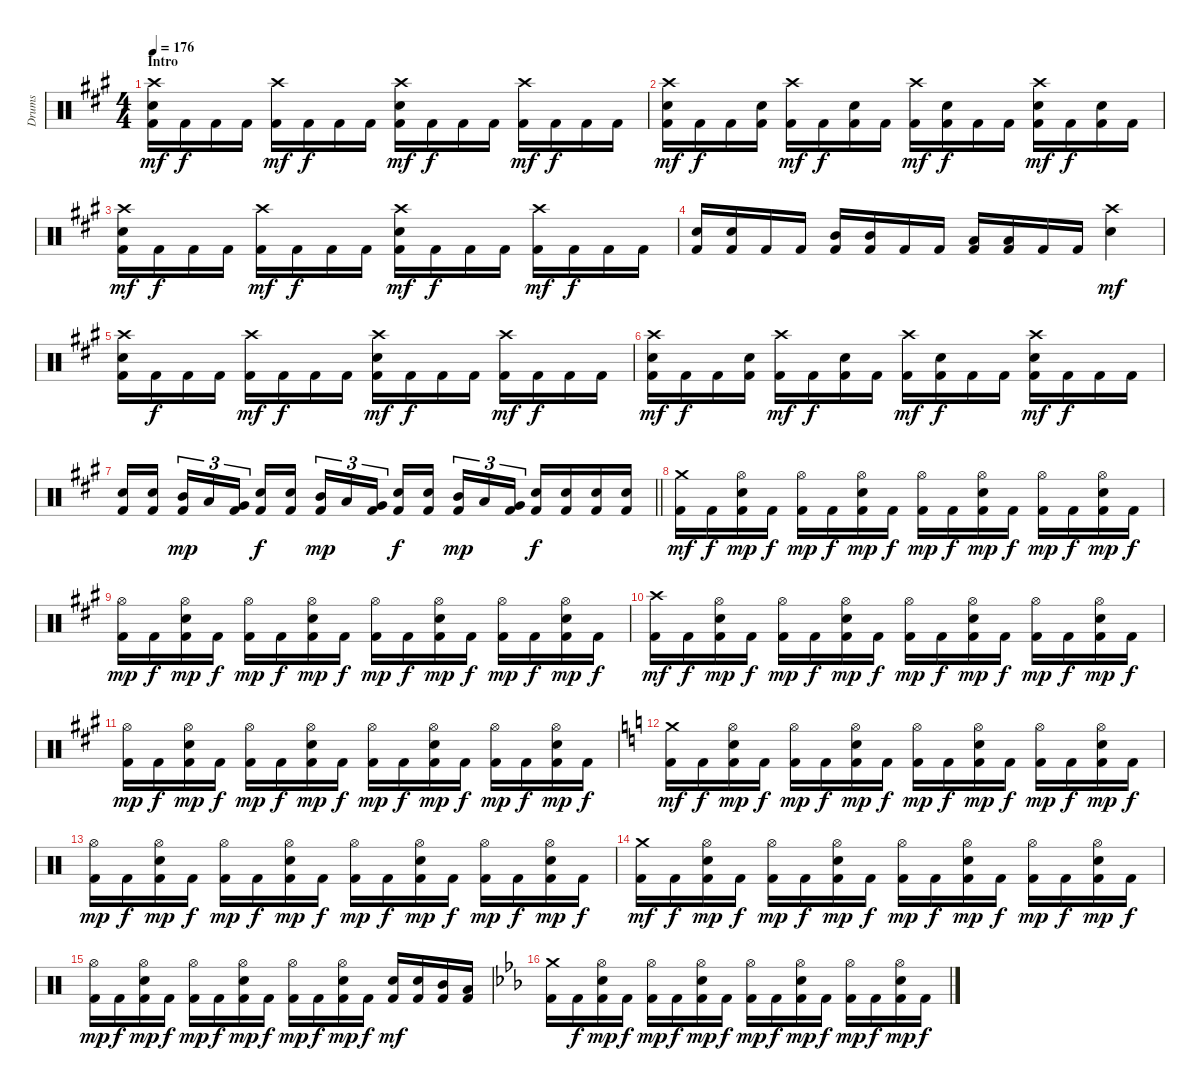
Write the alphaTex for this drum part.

\track ("Drums" "Drums") {instrument percussion}
\staff {score}
\articulation defaults
\ts (4 4)
\section ("" "Intro")
\tempo 176
\clef neutral
\ks f#minor
("Crash high (hit)" "Electric Snare (hit)" "Kick (hit) 2").16{dy mf} "Kick (hit) 2".16{dy f} "Kick (hit) 2".16 "Kick (hit) 2".16 ("Crash high (hit)" "Kick (hit) 2").16{dy mf} "Kick (hit) 2".16{dy f} "Kick (hit) 2".16 "Kick (hit) 2".16 ("Crash high (hit)" "Electric Snare (hit)" "Kick (hit) 2").16{dy mf} "Kick (hit) 2".16{dy f} "Kick (hit) 2".16 "Kick (hit) 2".16 ("Crash high (hit)" "Kick (hit) 2").16{dy mf} "Kick (hit) 2".16{dy f} "Kick (hit) 2".16 "Kick (hit) 2".16 |
("Crash high (hit)" "Electric Snare (hit)" "Kick (hit) 2").16{dy mf} "Kick (hit) 2".16{dy f} "Kick (hit) 2".16 ("Electric Snare (hit)" "Kick (hit) 2").16 ("Crash high (hit)" "Kick (hit) 2").16{dy mf} "Kick (hit) 2".16{dy f} ("Electric Snare (hit)" "Kick (hit) 2").16 "Kick (hit) 2".16 ("Crash high (hit)" "Kick (hit) 2").16{dy mf} ("Electric Snare (hit)" "Kick (hit) 2").16{dy f} "Kick (hit) 2".16 "Kick (hit) 2".16 ("Crash high (hit)" "Electric Snare (hit)" "Kick (hit) 2").16{dy mf} "Kick (hit) 2".16{dy f} ("Electric Snare (hit)" "Kick (hit) 2").16 "Kick (hit) 2".16 |
("Crash high (hit)" "Electric Snare (hit)" "Kick (hit) 2").16{dy mf} "Kick (hit) 2".16{dy f} "Kick (hit) 2".16 "Kick (hit) 2".16 ("Crash high (hit)" "Kick (hit) 2").16{dy mf} "Kick (hit) 2".16{dy f} "Kick (hit) 2".16 "Kick (hit) 2".16 ("Crash high (hit)" "Electric Snare (hit)" "Kick (hit) 2").16{dy mf} "Kick (hit) 2".16{dy f} "Kick (hit) 2".16 "Kick (hit) 2".16 ("Crash high (hit)" "Kick (hit) 2").16{dy mf} "Kick (hit) 2".16{dy f} "Kick (hit) 2".16 "Kick (hit) 2".16 |
("Electric Snare (hit)" "Kick (hit) 2").16 ("Electric Snare (hit)" "Kick (hit) 2").16 "Kick (hit) 2".16 "Kick (hit) 2".16 ("Mid Tom (hit)" "Kick (hit) 2").16 ("Mid Tom (hit)" "Kick (hit) 2").16 "Kick (hit) 2".16 "Kick (hit) 2".16 ("Low Tom (hit)" "Kick (hit) 2").16 ("Low Tom (hit)" "Kick (hit) 2").16 "Kick (hit) 2".16 "Kick (hit) 2".16 ("Crash high (hit)" "Electric Snare (hit)").4{dy mf} |
("Crash high (hit)" "Electric Snare (hit)" "Kick (hit) 2").16 "Kick (hit) 2".16{dy f} "Kick (hit) 2".16 "Kick (hit) 2".16 ("Crash high (hit)" "Kick (hit) 2").16{dy mf} "Kick (hit) 2".16{dy f} "Kick (hit) 2".16 "Kick (hit) 2".16 ("Crash high (hit)" "Electric Snare (hit)" "Kick (hit) 2").16{dy mf} "Kick (hit) 2".16{dy f} "Kick (hit) 2".16 "Kick (hit) 2".16 ("Crash high (hit)" "Kick (hit) 2").16{dy mf} "Kick (hit) 2".16{dy f} "Kick (hit) 2".16 "Kick (hit) 2".16 |
("Crash high (hit)" "Electric Snare (hit)" "Kick (hit) 2").16{dy mf} "Kick (hit) 2".16{dy f} "Kick (hit) 2".16 ("Electric Snare (hit)" "Kick (hit) 2").16 ("Crash high (hit)" "Kick (hit) 2").16{dy mf} "Kick (hit) 2".16{dy f} ("Electric Snare (hit)" "Kick (hit) 2").16 "Kick (hit) 2".16 ("Crash high (hit)" "Kick (hit) 2").16{dy mf} ("Electric Snare (hit)" "Kick (hit) 2").16{dy f} "Kick (hit) 2".16 "Kick (hit) 2".16 ("Crash high (hit)" "Electric Snare (hit)" "Kick (hit) 2").16{dy mf} "Kick (hit) 2".16{dy f} "Kick (hit) 2".16 "Kick (hit) 2".16 |
\barLineRight lightlight
("Electric Snare (hit)" "Kick (hit) 2").16 ("Electric Snare (hit)" "Kick (hit) 2").16{beam splitsecondary} ("Mid Tom (hit)" "Kick (hit) 2").16{tu (3 2) dy mp} "Low Tom (hit)".16{tu (3 2)} ("Very Low Tom (hit)" "Kick (hit) 2").16{tu (3 2)} ("Electric Snare (hit)" "Kick (hit) 2").16{dy f} ("Electric Snare (hit)" "Kick (hit) 2").16{beam splitsecondary} ("Mid Tom (hit)" "Kick (hit) 2").16{tu (3 2) dy mp} "Low Tom (hit)".16{tu (3 2)} ("Very Low Tom (hit)" "Kick (hit) 2").16{tu (3 2)} ("Electric Snare (hit)" "Kick (hit) 2").16{dy f} ("Electric Snare (hit)" "Kick (hit) 2").16{beam splitsecondary} ("Mid Tom (hit)" "Kick (hit) 2").16{tu (3 2) dy mp} "Low Tom (hit)".16{tu (3 2)} ("Very Low Tom (hit)" "Kick (hit) 2").16{tu (3 2)} ("Electric Snare (hit)" "Kick (hit) 2").16{dy f} ("Electric Snare (hit)" "Kick (hit) 2").16 ("Electric Snare (hit)" "Kick (hit) 2").16 ("Electric Snare (hit)" "Kick (hit) 2").16 |
\section ("" "")
("Crash medium (hit)" "Kick (hit) 2").16{dy mf} "Kick (hit) 2".16{dy f} ("Hi-Hat (open)" "Electric Snare (hit)" "Kick (hit) 2").16{dy mp} "Kick (hit) 2".16{dy f} ("Hi-Hat (open)" "Kick (hit) 2").16{dy mp} "Kick (hit) 2".16{dy f} ("Hi-Hat (open)" "Electric Snare (hit)" "Kick (hit) 2").16{dy mp} "Kick (hit) 2".16{dy f} ("Hi-Hat (open)" "Kick (hit) 2").16{dy mp} "Kick (hit) 2".16{dy f} ("Hi-Hat (open)" "Electric Snare (hit)" "Kick (hit) 2").16{dy mp} "Kick (hit) 2".16{dy f} ("Hi-Hat (open)" "Kick (hit) 2").16{dy mp} "Kick (hit) 2".16{dy f} ("Hi-Hat (open)" "Electric Snare (hit)" "Kick (hit) 2").16{dy mp} "Kick (hit) 2".16{dy f} |
("Hi-Hat (open)" "Kick (hit) 2").16{dy mp} "Kick (hit) 2".16{dy f} ("Hi-Hat (open)" "Electric Snare (hit)" "Kick (hit) 2").16{dy mp} "Kick (hit) 2".16{dy f} ("Hi-Hat (open)" "Kick (hit) 2").16{dy mp} "Kick (hit) 2".16{dy f} ("Hi-Hat (open)" "Electric Snare (hit)" "Kick (hit) 2").16{dy mp} "Kick (hit) 2".16{dy f} ("Hi-Hat (open)" "Kick (hit) 2").16{dy mp} "Kick (hit) 2".16{dy f} ("Hi-Hat (open)" "Electric Snare (hit)" "Kick (hit) 2").16{dy mp} "Kick (hit) 2".16{dy f} ("Hi-Hat (open)" "Kick (hit) 2").16{dy mp} "Kick (hit) 2".16{dy f} ("Hi-Hat (open)" "Electric Snare (hit)" "Kick (hit) 2").16{dy mp} "Kick (hit) 2".16{dy f} |
("Crash high (hit)" "Kick (hit) 2").16{dy mf} "Kick (hit) 2".16{dy f} ("Hi-Hat (open)" "Electric Snare (hit)" "Kick (hit) 2").16{dy mp} "Kick (hit) 2".16{dy f} ("Hi-Hat (open)" "Kick (hit) 2").16{dy mp} "Kick (hit) 2".16{dy f} ("Hi-Hat (open)" "Electric Snare (hit)" "Kick (hit) 2").16{dy mp} "Kick (hit) 2".16{dy f} ("Hi-Hat (open)" "Kick (hit) 2").16{dy mp} "Kick (hit) 2".16{dy f} ("Hi-Hat (open)" "Electric Snare (hit)" "Kick (hit) 2").16{dy mp} "Kick (hit) 2".16{dy f} ("Hi-Hat (open)" "Kick (hit) 2").16{dy mp} "Kick (hit) 2".16{dy f} ("Hi-Hat (open)" "Electric Snare (hit)" "Kick (hit) 2").16{dy mp} "Kick (hit) 2".16{dy f} |
("Hi-Hat (open)" "Kick (hit) 2").16{dy mp} "Kick (hit) 2".16{dy f} ("Hi-Hat (open)" "Electric Snare (hit)" "Kick (hit) 2").16{dy mp} "Kick (hit) 2".16{dy f} ("Hi-Hat (open)" "Kick (hit) 2").16{dy mp} "Kick (hit) 2".16{dy f} ("Hi-Hat (open)" "Electric Snare (hit)" "Kick (hit) 2").16{dy mp} "Kick (hit) 2".16{dy f} ("Hi-Hat (open)" "Kick (hit) 2").16{dy mp} "Kick (hit) 2".16{dy f} ("Hi-Hat (open)" "Electric Snare (hit)" "Kick (hit) 2").16{dy mp} "Kick (hit) 2".16{dy f} ("Hi-Hat (open)" "Kick (hit) 2").16{dy mp} "Kick (hit) 2".16{dy f} ("Hi-Hat (open)" "Electric Snare (hit)" "Kick (hit) 2").16{dy mp} "Kick (hit) 2".16{dy f} |
\ks aminor
("Crash medium (hit)" "Kick (hit) 2").16{dy mf} "Kick (hit) 2".16{dy f} ("Hi-Hat (open)" "Electric Snare (hit)" "Kick (hit) 2").16{dy mp} "Kick (hit) 2".16{dy f} ("Hi-Hat (open)" "Kick (hit) 2").16{dy mp} "Kick (hit) 2".16{dy f} ("Hi-Hat (open)" "Electric Snare (hit)" "Kick (hit) 2").16{dy mp} "Kick (hit) 2".16{dy f} ("Hi-Hat (open)" "Kick (hit) 2").16{dy mp} "Kick (hit) 2".16{dy f} ("Hi-Hat (open)" "Electric Snare (hit)" "Kick (hit) 2").16{dy mp} "Kick (hit) 2".16{dy f} ("Hi-Hat (open)" "Kick (hit) 2").16{dy mp} "Kick (hit) 2".16{dy f} ("Hi-Hat (open)" "Electric Snare (hit)" "Kick (hit) 2").16{dy mp} "Kick (hit) 2".16{dy f} |
("Hi-Hat (open)" "Kick (hit) 2").16{dy mp} "Kick (hit) 2".16{dy f} ("Hi-Hat (open)" "Electric Snare (hit)" "Kick (hit) 2").16{dy mp} "Kick (hit) 2".16{dy f} ("Hi-Hat (open)" "Kick (hit) 2").16{dy mp} "Kick (hit) 2".16{dy f} ("Hi-Hat (open)" "Electric Snare (hit)" "Kick (hit) 2").16{dy mp} "Kick (hit) 2".16{dy f} ("Hi-Hat (open)" "Kick (hit) 2").16{dy mp} "Kick (hit) 2".16{dy f} ("Hi-Hat (open)" "Electric Snare (hit)" "Kick (hit) 2").16{dy mp} "Kick (hit) 2".16{dy f} ("Hi-Hat (open)" "Kick (hit) 2").16{dy mp} "Kick (hit) 2".16{dy f} ("Hi-Hat (open)" "Electric Snare (hit)" "Kick (hit) 2").16{dy mp} "Kick (hit) 2".16{dy f} |
("Crash medium (hit)" "Kick (hit) 2").16{dy mf} "Kick (hit) 2".16{dy f} ("Hi-Hat (open)" "Electric Snare (hit)" "Kick (hit) 2").16{dy mp} "Kick (hit) 2".16{dy f} ("Hi-Hat (open)" "Kick (hit) 2").16{dy mp} "Kick (hit) 2".16{dy f} ("Hi-Hat (open)" "Electric Snare (hit)" "Kick (hit) 2").16{dy mp} "Kick (hit) 2".16{dy f} ("Hi-Hat (open)" "Kick (hit) 2").16{dy mp} "Kick (hit) 2".16{dy f} ("Hi-Hat (open)" "Electric Snare (hit)" "Kick (hit) 2").16{dy mp} "Kick (hit) 2".16{dy f} ("Hi-Hat (open)" "Kick (hit) 2").16{dy mp} "Kick (hit) 2".16{dy f} ("Hi-Hat (open)" "Electric Snare (hit)" "Kick (hit) 2").16{dy mp} "Kick (hit) 2".16{dy f} |
("Hi-Hat (open)" "Kick (hit) 2").16{dy mp} "Kick (hit) 2".16{dy f} ("Hi-Hat (open)" "Electric Snare (hit)" "Kick (hit) 2").16{dy mp} "Kick (hit) 2".16{dy f} ("Hi-Hat (open)" "Kick (hit) 2").16{dy mp} "Kick (hit) 2".16{dy f} ("Hi-Hat (open)" "Electric Snare (hit)" "Kick (hit) 2").16{dy mp} "Kick (hit) 2".16{dy f} ("Hi-Hat (open)" "Kick (hit) 2").16{dy mp} "Kick (hit) 2".16{dy f} ("Hi-Hat (open)" "Electric Snare (hit)" "Kick (hit) 2").16{dy mp} "Kick (hit) 2".16{dy f} ("Electric Snare (hit)" "Kick (hit) 2").16{dy mf} ("Electric Snare (hit)" "Kick (hit) 2").16 ("Mid Tom (hit)" "Kick (hit) 2").16 ("Low Tom (hit)" "Kick (hit) 2").16 |
\ks cminor
("Crash medium (hit)" "Kick (hit) 2").16 "Kick (hit) 2".16{dy f} ("Hi-Hat (open)" "Electric Snare (hit)" "Kick (hit) 2").16{dy mp} "Kick (hit) 2".16{dy f} ("Hi-Hat (open)" "Kick (hit) 2").16{dy mp} "Kick (hit) 2".16{dy f} ("Hi-Hat (open)" "Electric Snare (hit)" "Kick (hit) 2").16{dy mp} "Kick (hit) 2".16{dy f} ("Hi-Hat (open)" "Kick (hit) 2").16{dy mp} "Kick (hit) 2".16{dy f} ("Hi-Hat (open)" "Electric Snare (hit)" "Kick (hit) 2").16{dy mp} "Kick (hit) 2".16{dy f} ("Hi-Hat (open)" "Kick (hit) 2").16{dy mp} "Kick (hit) 2".16{dy f} ("Hi-Hat (open)" "Electric Snare (hit)" "Kick (hit) 2").16{dy mp} "Kick (hit) 2".16{dy f}
